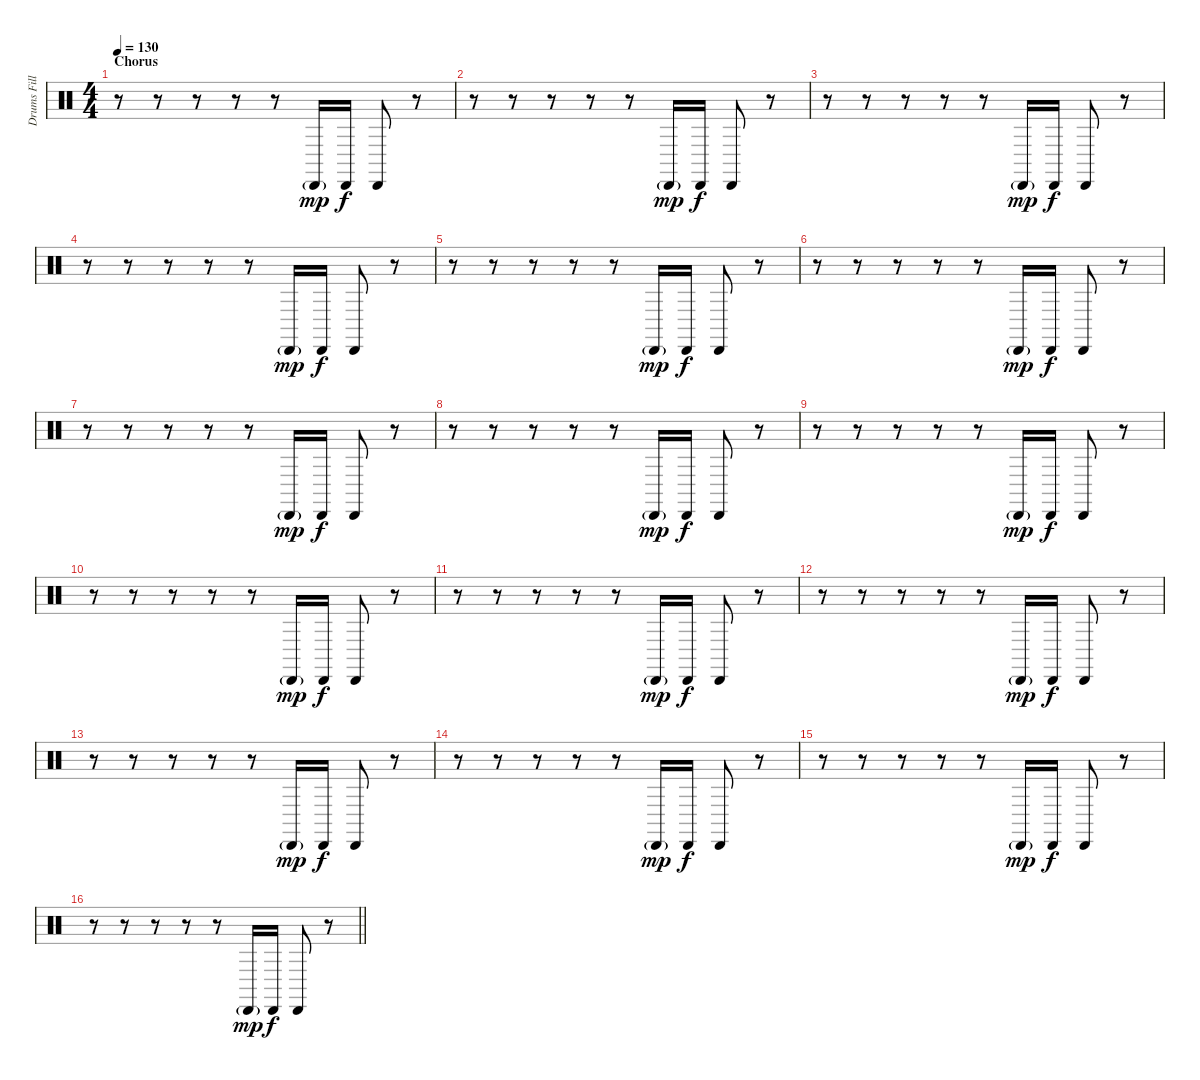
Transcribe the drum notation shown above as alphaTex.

\track ("Drums Fill" "Drums Fill") {instrument percussion}
\staff {score}
\articulation defaults
\ts (4 4)
\section ("" "Chorus")
\tempo 130
\clef neutral
\ks c
r.8{dy fff} r.8 r.8 r.8 r.8 "Cabasa (hit)"{g}.16{dy mp} "Cabasa (hit)".16{dy f} "Cabasa (hit)".8 r.8 |
r.8 r.8 r.8 r.8 r.8 "Cabasa (hit)"{g}.16{dy mp} "Cabasa (hit)".16{dy f} "Cabasa (hit)".8 r.8 |
r.8 r.8 r.8 r.8 r.8 "Cabasa (hit)"{g}.16{dy mp} "Cabasa (hit)".16{dy f} "Cabasa (hit)".8 r.8 |
r.8 r.8 r.8 r.8 r.8 "Cabasa (hit)"{g}.16{dy mp} "Cabasa (hit)".16{dy f} "Cabasa (hit)".8 r.8 |
r.8 r.8 r.8 r.8 r.8 "Cabasa (hit)"{g}.16{dy mp} "Cabasa (hit)".16{dy f} "Cabasa (hit)".8 r.8 |
r.8 r.8 r.8 r.8 r.8 "Cabasa (hit)"{g}.16{dy mp} "Cabasa (hit)".16{dy f} "Cabasa (hit)".8 r.8 |
r.8 r.8 r.8 r.8 r.8 "Cabasa (hit)"{g}.16{dy mp} "Cabasa (hit)".16{dy f} "Cabasa (hit)".8 r.8 |
r.8 r.8 r.8 r.8 r.8 "Cabasa (hit)"{g}.16{dy mp} "Cabasa (hit)".16{dy f} "Cabasa (hit)".8 r.8 |
r.8 r.8 r.8 r.8 r.8 "Cabasa (hit)"{g}.16{dy mp} "Cabasa (hit)".16{dy f} "Cabasa (hit)".8 r.8 |
r.8 r.8 r.8 r.8 r.8 "Cabasa (hit)"{g}.16{dy mp} "Cabasa (hit)".16{dy f} "Cabasa (hit)".8 r.8 |
r.8 r.8 r.8 r.8 r.8 "Cabasa (hit)"{g}.16{dy mp} "Cabasa (hit)".16{dy f} "Cabasa (hit)".8 r.8 |
r.8 r.8 r.8 r.8 r.8 "Cabasa (hit)"{g}.16{dy mp} "Cabasa (hit)".16{dy f} "Cabasa (hit)".8 r.8 |
r.8 r.8 r.8 r.8 r.8 "Cabasa (hit)"{g}.16{dy mp} "Cabasa (hit)".16{dy f} "Cabasa (hit)".8 r.8 |
r.8 r.8 r.8 r.8 r.8 "Cabasa (hit)"{g}.16{dy mp} "Cabasa (hit)".16{dy f} "Cabasa (hit)".8 r.8 |
r.8 r.8 r.8 r.8 r.8 "Cabasa (hit)"{g}.16{dy mp} "Cabasa (hit)".16{dy f} "Cabasa (hit)".8 r.8 |
\barLineRight lightlight
r.8 r.8 r.8 r.8 r.8 "Cabasa (hit)"{g}.16{dy mp} "Cabasa (hit)".16{dy f} "Cabasa (hit)".8 r.8
